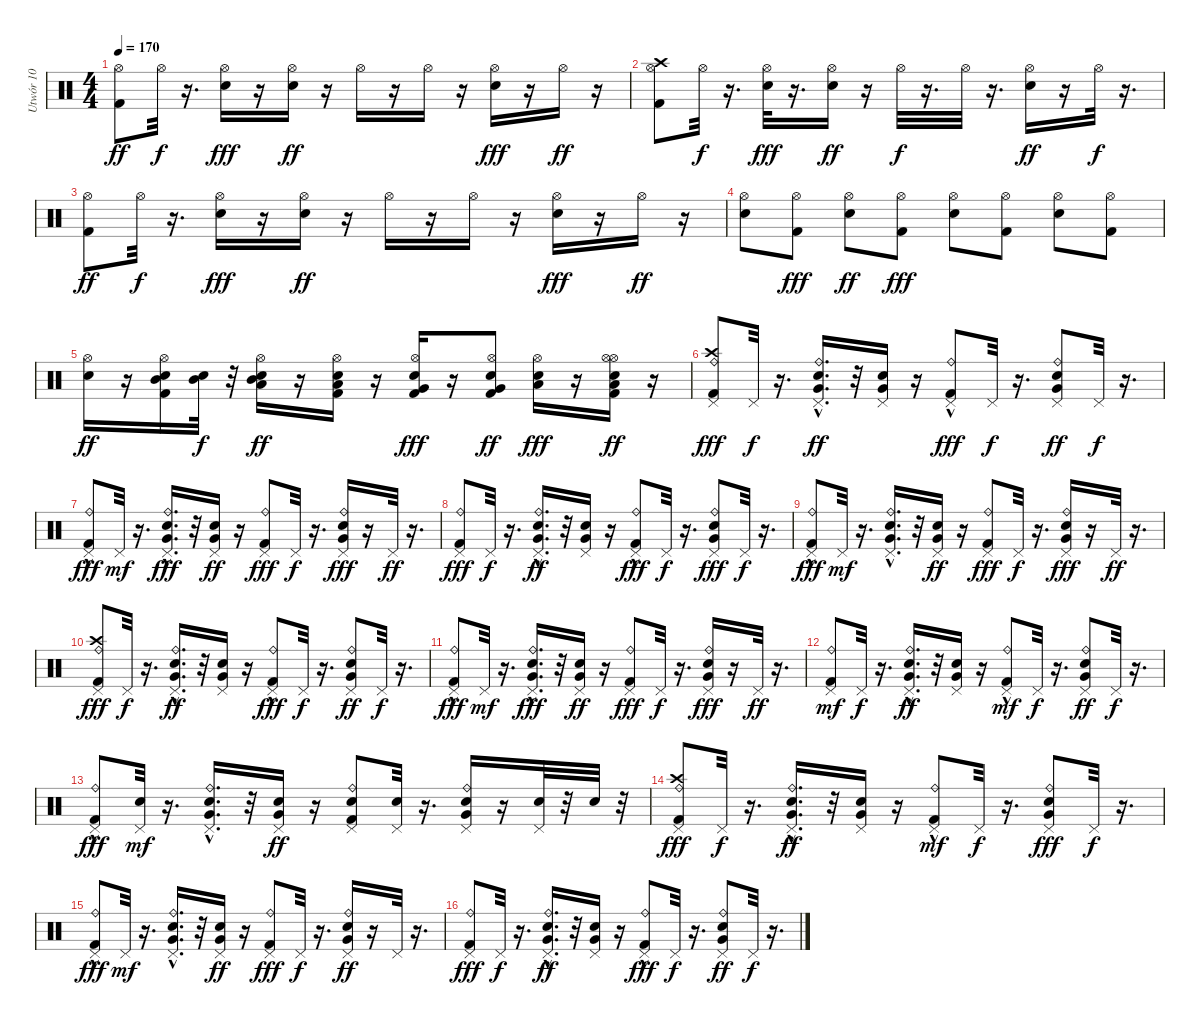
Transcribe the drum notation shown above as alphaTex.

\track ("Utwór 10" "Utwór 10") {instrument percussion}
\staff {score}
\articulation defaults
\ts (4 4)
\tempo 170
\clef neutral
\ks c
("Kick (hit) 2" "Hi-Hat (open)").8{dy ff} "Hi-Hat (open)".32{dy f} r.16{d} ("Hi-Hat (open)" "Snare (hit) 2").16{dy fff} r.16 ("Snare (hit) 2" "Hi-Hat (open)").16{dy ff} r.16 "Hi-Hat (open)".16 r.16 "Hi-Hat (open)".16 r.16 ("Hi-Hat (open)" "Snare (hit) 2").16{dy fff} r.16 "Hi-Hat (open)".16{dy ff} r.16 |
("Crash high (hit)" "Kick (hit) 2" "Hi-Hat (open)").8 "Hi-Hat (open)".32{dy f} r.16{d} ("Hi-Hat (open)" "Snare (hit) 2").32{dy fff} r.16{d} ("Snare (hit) 2" "Hi-Hat (open)").16{dy ff} r.16 "Hi-Hat (open)".32{dy f} r.16{d} "Hi-Hat (open)".32 r.16{d} ("Snare (hit) 2" "Hi-Hat (open)").16{dy ff} r.16 "Hi-Hat (open)".32{dy f} r.16{d} |
("Kick (hit) 2" "Hi-Hat (open)").8{dy ff} "Hi-Hat (open)".32{dy f} r.16{d} ("Hi-Hat (open)" "Snare (hit) 2").16{dy fff} r.16 ("Snare (hit) 2" "Hi-Hat (open)").16{dy ff} r.16 "Hi-Hat (open)".16 r.16 "Hi-Hat (open)".16 r.16 ("Hi-Hat (open)" "Snare (hit) 2").16{dy fff} r.16 "Hi-Hat (open)".16{dy ff} r.16 |
("Snare (hit) 2" "Hi-Hat (open)").8 ("Kick (hit) 2" "Hi-Hat (open)").8{dy fff} ("Hi-Hat (open)" "Snare (hit) 2").8{dy ff} ("Hi-Hat (open)" "Kick (hit) 2").8{dy fff} ("Hi-Hat (open)" "Snare (hit) 2").8 ("Hi-Hat (open)" "Kick (hit) 2").8 ("Hi-Hat (open)" "Snare (hit) 2").8 ("Kick (hit) 2" "Hi-Hat (open)").8 |
("Hi-Hat (open)" "Snare (hit) 2").16{dy ff} r.16 ("Kick (hit) 2" "Hi-Hat (open)" "Mid Tom (hit)" "Snare (hit) 2").16 ("Snare (hit) 2" "Mid Tom (hit)").32{dy f} r.32 ("Low Tom (hit)" "Mid Tom (hit)" "Hi-Hat (open)" "Snare (hit) 2").16{dy ff} r.16 ("Low Tom (hit)" "Kick (hit) 2" "Hi-Hat (open)" "Snare (hit) 2").16 r.16 ("Hi-Hat (open)" "Snare (hit) 2" "Kick (hit) 2" "Very Low Tom (hit)").16{dy fff} r.16 ("Very Low Tom (hit)" "Hi-Hat (open)" "Kick (hit) 2" "Snare (hit) 2").8{dy ff} ("Snare (hit) 2" "Hi-Hat (open)" "Low Floor Tom (hit)").16{dy fff} r.16 ("Hi-Hat (open)" "Kick (hit) 2" "Snare (hit) 2" "Low Tom (hit)" "Hi-Hat (open)").16{dy ff} r.16 |
("Pedal Hi-Hat (hit)" "Kick (hit) 2" "Crash high (hit)" "Ride (bell)").8{dy fff} "Pedal Hi-Hat (hit)".32{dy f} r.16{d} ("Snare (hit) 2" "Very Low Tom (hit)" "Pedal Hi-Hat (hit)" "Ride (bell)"{hac}).16{d dy ff} r.32 ("Very Low Tom (hit)" "Snare (hit) 2" "Pedal Hi-Hat (hit)").16 r.16 ("Ride (bell)"{hac} "Pedal Hi-Hat (hit)" "Kick (hit) 2").8{dy fff} "Pedal Hi-Hat (hit)".32{dy f} r.16{d} ("Ride (bell)" "Snare (hit) 2" "Very Low Tom (hit)" "Pedal Hi-Hat (hit)").8{dy ff} "Pedal Hi-Hat (hit)".32{dy f} r.16{d} |
("Ride (bell)"{hac} "Pedal Hi-Hat (hit)" "Kick (hit) 2"{hac}).8{dy fff} "Pedal Hi-Hat (hit)".32{dy mf} r.16{d} ("Snare (hit) 2" "Very Low Tom (hit)" "Pedal Hi-Hat (hit)" "Ride (bell)"{hac}).16{d dy fff} r.32 ("Very Low Tom (hit)" "Pedal Hi-Hat (hit)" "Snare (hit) 2").16{dy ff} r.16 ("Pedal Hi-Hat (hit)" "Ride (bell)" "Kick (hit) 2").8{dy fff} "Pedal Hi-Hat (hit)".32{dy f} r.16{d} ("Snare (hit) 2" "Pedal Hi-Hat (hit)" "Very Low Tom (hit)" "Ride (bell)").16{dy fff} r.16 "Pedal Hi-Hat (hit)".32{dy ff} r.16{d} |
("Kick (hit) 2" "Pedal Hi-Hat (hit)" "Ride (bell)").8{dy fff} "Pedal Hi-Hat (hit)".32{dy f} r.16{d} ("Snare (hit) 2" "Pedal Hi-Hat (hit)" "Very Low Tom (hit)" "Ride (bell)"{hac}).16{d dy ff} r.32 ("Snare (hit) 2" "Very Low Tom (hit)" "Pedal Hi-Hat (hit)").16 r.16 ("Pedal Hi-Hat (hit)" "Ride (bell)"{hac} "Kick (hit) 2").8{dy fff} "Pedal Hi-Hat (hit)".32{dy f} r.16{d} ("Very Low Tom (hit)" "Pedal Hi-Hat (hit)" "Snare (hit) 2" "Ride (bell)").8{dy fff} "Pedal Hi-Hat (hit)".32{dy f} r.16{d} |
("Pedal Hi-Hat (hit)" "Kick (hit) 2"{hac} "Ride (bell)"{hac}).8{dy fff} "Pedal Hi-Hat (hit)".32{dy mf} r.16{d} ("Ride (bell)"{hac} "Snare (hit) 2" "Very Low Tom (hit)" "Pedal Hi-Hat (hit)").16{d} r.32 ("Very Low Tom (hit)" "Snare (hit) 2" "Pedal Hi-Hat (hit)").16{dy ff} r.16 ("Pedal Hi-Hat (hit)" "Kick (hit) 2" "Ride (bell)").8{dy fff} "Pedal Hi-Hat (hit)".32{dy f} r.16{d} ("Ride (bell)" "Pedal Hi-Hat (hit)" "Very Low Tom (hit)" "Snare (hit) 2").16{dy fff} r.16 "Pedal Hi-Hat (hit)".32{dy ff} r.16{d} |
("Kick (hit) 2" "Pedal Hi-Hat (hit)" "Ride (bell)" "Crash high (hit)").8{dy fff} "Pedal Hi-Hat (hit)".32{dy f} r.16{d} ("Ride (bell)"{hac} "Snare (hit) 2" "Very Low Tom (hit)" "Pedal Hi-Hat (hit)").16{d dy ff} r.32 ("Snare (hit) 2" "Pedal Hi-Hat (hit)" "Very Low Tom (hit)").16 r.16 ("Ride (bell)"{hac} "Pedal Hi-Hat (hit)" "Kick (hit) 2").8{dy fff} "Pedal Hi-Hat (hit)".32{dy f} r.16{d} ("Pedal Hi-Hat (hit)" "Ride (bell)" "Very Low Tom (hit)" "Snare (hit) 2").8{dy ff} "Pedal Hi-Hat (hit)".32{dy f} r.16{d} |
("Kick (hit) 2"{hac} "Ride (bell)"{hac} "Pedal Hi-Hat (hit)").8{dy fff} "Pedal Hi-Hat (hit)".32{dy mf} r.16{d} ("Pedal Hi-Hat (hit)" "Snare (hit) 2" "Very Low Tom (hit)" "Ride (bell)"{hac}).16{d dy fff} r.32 ("Very Low Tom (hit)" "Pedal Hi-Hat (hit)" "Snare (hit) 2").16{dy ff} r.16 ("Pedal Hi-Hat (hit)" "Kick (hit) 2" "Ride (bell)").8{dy fff} "Pedal Hi-Hat (hit)".32{dy f} r.16{d} ("Pedal Hi-Hat (hit)" "Very Low Tom (hit)" "Snare (hit) 2" "Ride (bell)").16{dy fff} r.16 "Pedal Hi-Hat (hit)".32{dy ff} r.16{d} |
("Kick (hit) 2" "Ride (bell)" "Pedal Hi-Hat (hit)").8{dy mf} "Pedal Hi-Hat (hit)".32{dy f} r.16{d} ("Very Low Tom (hit)" "Pedal Hi-Hat (hit)" "Snare (hit) 2" "Ride (bell)"{hac}).16{d dy ff} r.32 ("Very Low Tom (hit)" "Pedal Hi-Hat (hit)" "Snare (hit) 2").16 r.16 ("Ride (bell)"{hac} "Kick (hit) 2" "Pedal Hi-Hat (hit)").8{dy mf} "Pedal Hi-Hat (hit)".32{dy f} r.16{d} ("Very Low Tom (hit)" "Ride (bell)" "Snare (hit) 2" "Pedal Hi-Hat (hit)").8{dy ff} "Pedal Hi-Hat (hit)".32{dy f} r.16{d} |
("Pedal Hi-Hat (hit)" "Kick (hit) 2"{hac} "Ride (bell)"{hac}).8{dy fff} ("Snare (hit) 2" "Pedal Hi-Hat (hit)").32{dy mf} r.16{d} ("Snare (hit) 2" "Ride (bell)"{hac} "Pedal Hi-Hat (hit)" "Very Low Tom (hit)").16{d} r.32 ("Snare (hit) 2" "Very Low Tom (hit)" "Pedal Hi-Hat (hit)").16{dy ff} r.16 ("Ride (bell)" "Kick (hit) 2" "Pedal Hi-Hat (hit)" "Snare (hit) 2").8 ("Snare (hit) 2" "Pedal Hi-Hat (hit)").32 r.16{d} ("Ride (bell)" "Very Low Tom (hit)" "Pedal Hi-Hat (hit)" "Snare (hit) 2").16 r.16 ("Snare (hit) 2" "Pedal Hi-Hat (hit)").32 r.32 "Snare (hit) 2".32 r.32 |
("Crash high (hit)" "Kick (hit) 2" "Pedal Hi-Hat (hit)" "Ride (bell)").8{dy fff} "Pedal Hi-Hat (hit)".32{dy f} r.16{d} ("Snare (hit) 2" "Very Low Tom (hit)" "Ride (bell)"{hac} "Pedal Hi-Hat (hit)").16{d dy ff} r.32 ("Pedal Hi-Hat (hit)" "Very Low Tom (hit)" "Snare (hit) 2").16 r.16 ("Kick (hit) 2" "Ride (bell)"{hac} "Pedal Hi-Hat (hit)").8{dy mf} "Pedal Hi-Hat (hit)".32{dy f} r.16{d} ("Pedal Hi-Hat (hit)" "Very Low Tom (hit)" "Snare (hit) 2" "Ride (bell)").8{dy fff} "Pedal Hi-Hat (hit)".32{dy f} r.16{d} |
("Pedal Hi-Hat (hit)" "Kick (hit) 2"{hac} "Ride (bell)"{hac}).8{dy fff} "Pedal Hi-Hat (hit)".32{dy mf} r.16{d} ("Snare (hit) 2" "Pedal Hi-Hat (hit)" "Ride (bell)"{hac} "Very Low Tom (hit)").16{d} r.32 ("Pedal Hi-Hat (hit)" "Very Low Tom (hit)" "Snare (hit) 2").16{dy ff} r.16 ("Pedal Hi-Hat (hit)" "Ride (bell)" "Kick (hit) 2").8{dy fff} "Pedal Hi-Hat (hit)".32{dy f} r.16{d} ("Snare (hit) 2" "Ride (bell)" "Very Low Tom (hit)" "Pedal Hi-Hat (hit)").16{dy ff} r.16 "Pedal Hi-Hat (hit)".32 r.16{d} |
("Pedal Hi-Hat (hit)" "Ride (bell)" "Kick (hit) 2").8{dy fff} "Pedal Hi-Hat (hit)".32{dy f} r.16{d} ("Snare (hit) 2" "Pedal Hi-Hat (hit)" "Very Low Tom (hit)" "Ride (bell)"{hac}).16{d dy ff} r.32 ("Snare (hit) 2" "Very Low Tom (hit)" "Pedal Hi-Hat (hit)").16 r.16 ("Ride (bell)"{hac} "Pedal Hi-Hat (hit)" "Kick (hit) 2").8{dy fff} "Pedal Hi-Hat (hit)".32{dy f} r.16{d} ("Pedal Hi-Hat (hit)" "Snare (hit) 2" "Ride (bell)" "Very Low Tom (hit)").8{dy ff} "Pedal Hi-Hat (hit)".32{dy f} r.16{d}
